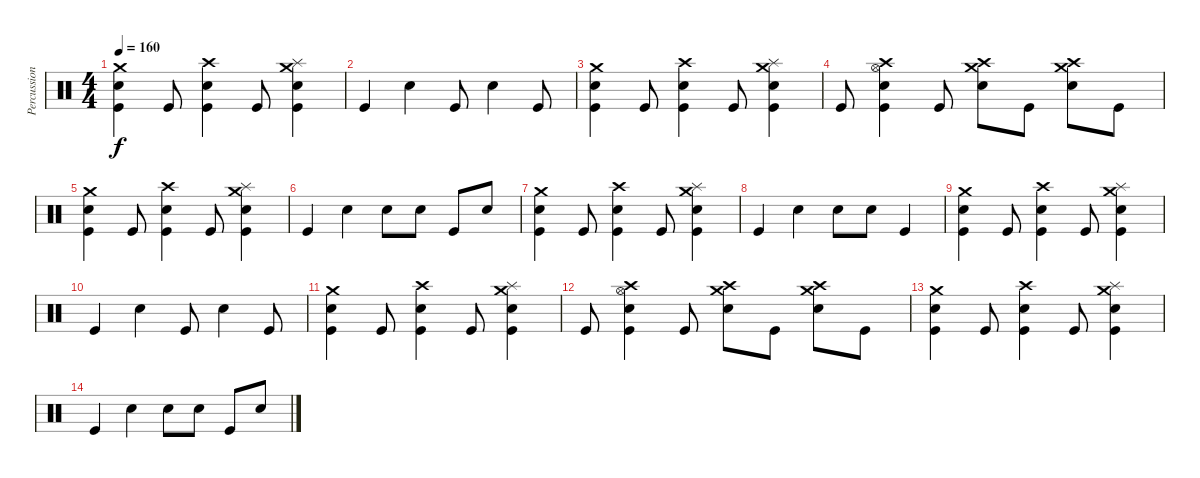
\track ("Percussion" "Percussion") {instrument percussion}
\staff {score}
\articulation defaults
\ts (4 4)
\tempo 160
\clef neutral
\ks c
("Crash medium (hit)" "Snare (hit) 2" "Kick (hit)").4{dy f} "Kick (hit)".8 ("Crash high (hit)" "Snare (hit) 2" "Kick (hit)").4 "Kick (hit)".8 ("Splash (hit)" "Crash medium (hit)" "Snare (hit) 2" "Kick (hit)").4 |
"Kick (hit)".4 "Snare (hit) 2".4 "Kick (hit)".8 "Snare (hit) 2".4 "Kick (hit)".8 |
("Crash medium (hit)" "Snare (hit) 2" "Kick (hit)").4 "Kick (hit)".8 ("Crash high (hit)" "Snare (hit) 2" "Kick (hit)").4 "Kick (hit)".8 ("Splash (hit)" "Crash medium (hit)" "Snare (hit) 2" "Kick (hit)").4 |
"Kick (hit)".8 ("Crash high (hit)" "Hi-Hat (open)" "Snare (hit) 2" "Kick (hit)").4 "Kick (hit)".8 ("Crash medium (hit)" "Crash high (hit)" "Snare (hit) 2").8 "Kick (hit)".8 ("Crash medium (hit)" "Crash high (hit)" "Snare (hit) 2").8 "Kick (hit)".8 |
("Crash medium (hit)" "Snare (hit) 2" "Kick (hit)").4 "Kick (hit)".8 ("Crash high (hit)" "Snare (hit) 2" "Kick (hit)").4 "Kick (hit)".8 ("Splash (hit)" "Crash medium (hit)" "Snare (hit) 2" "Kick (hit)").4 |
"Kick (hit)".4 "Snare (hit) 2".4 "Snare (hit) 2".8 "Snare (hit) 2".8 "Kick (hit)".8 "Snare (hit) 2".8 |
("Crash medium (hit)" "Snare (hit) 2" "Kick (hit)").4 "Kick (hit)".8 ("Crash high (hit)" "Snare (hit) 2" "Kick (hit)").4 "Kick (hit)".8 ("Splash (hit)" "Crash medium (hit)" "Snare (hit) 2" "Kick (hit)").4 |
"Kick (hit)".4 "Snare (hit) 2".4 "Snare (hit) 2".8 "Snare (hit) 2".8 "Kick (hit)".4 |
("Crash medium (hit)" "Snare (hit) 2" "Kick (hit)").4 "Kick (hit)".8 ("Crash high (hit)" "Snare (hit) 2" "Kick (hit)").4 "Kick (hit)".8 ("Splash (hit)" "Crash medium (hit)" "Snare (hit) 2" "Kick (hit)").4 |
"Kick (hit)".4 "Snare (hit) 2".4 "Kick (hit)".8 "Snare (hit) 2".4 "Kick (hit)".8 |
("Crash medium (hit)" "Snare (hit) 2" "Kick (hit)").4 "Kick (hit)".8 ("Crash high (hit)" "Snare (hit) 2" "Kick (hit)").4 "Kick (hit)".8 ("Splash (hit)" "Crash medium (hit)" "Snare (hit) 2" "Kick (hit)").4 |
"Kick (hit)".8 ("Crash high (hit)" "Hi-Hat (open)" "Snare (hit) 2" "Kick (hit)").4 "Kick (hit)".8 ("Crash medium (hit)" "Crash high (hit)" "Snare (hit) 2").8 "Kick (hit)".8 ("Crash medium (hit)" "Crash high (hit)" "Snare (hit) 2").8 "Kick (hit)".8 |
("Crash medium (hit)" "Snare (hit) 2" "Kick (hit)").4 "Kick (hit)".8 ("Crash high (hit)" "Snare (hit) 2" "Kick (hit)").4 "Kick (hit)".8 ("Splash (hit)" "Crash medium (hit)" "Snare (hit) 2" "Kick (hit)").4 |
"Kick (hit)".4 "Snare (hit) 2".4 "Snare (hit) 2".8 "Snare (hit) 2".8 "Kick (hit)".8 "Snare (hit) 2".8
